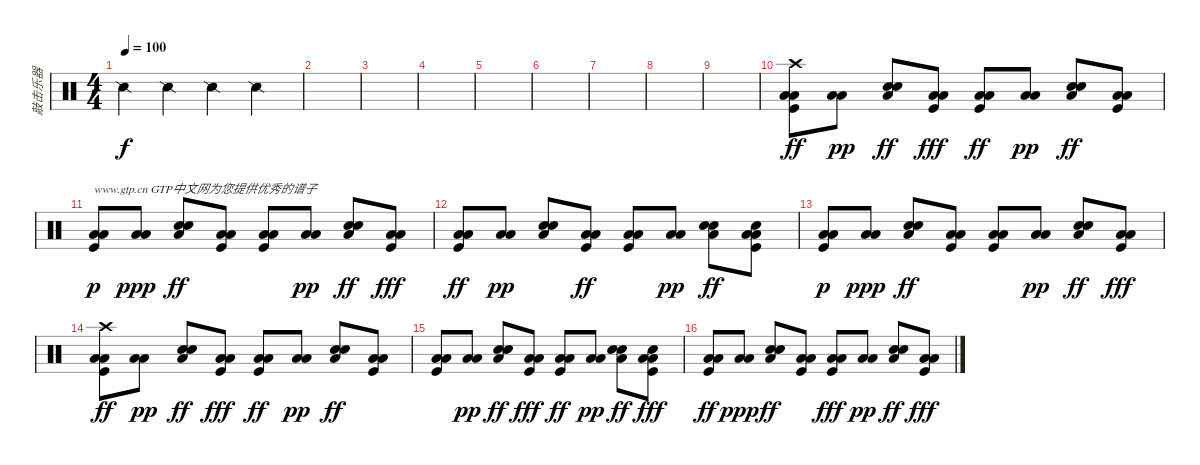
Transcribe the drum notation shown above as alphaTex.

\track ("敲击乐器" "敲击乐器") {instrument percussion}
\staff {score}
\articulation defaults
\ts (4 4)
\tempo 100
\clef neutral
\ks c "Snare (side stick) 2".4{dy f} "Snare (side stick) 2".4 "Snare (side stick) 2".4 "Snare (side stick) 2".4
|
|
|
|
|
|
|
|
|
("Crash high (hit)" "Low Tom (hit)" "Low Floor Tom (hit)" "Kick (hit)").8{dy ff} ("Low Tom (hit)" "Low Floor Tom (hit)").8{dy pp} ("Snare (hit) 2" "Low Floor Tom (hit)" "Hand Clap (hit)").8{dy ff} ("Low Tom (hit)" "Low Floor Tom (hit)" "Kick (hit)").8{dy fff} ("Low Tom (hit)" "Low Floor Tom (hit)" "Kick (hit)").8{dy ff} ("Low Tom (hit)" "Low Floor Tom (hit)").8{dy pp} ("Low Floor Tom (hit)" "Hand Clap (hit)" "Snare (hit) 2").8{dy ff} ("Low Tom (hit)" "Low Floor Tom (hit)" "Kick (hit)").8 |
("Low Tom (hit)" "Low Floor Tom (hit)" "Kick (hit)").8{txt "www.gtp.cn GTP中文网为您提供优秀的谱子" dy p} ("Low Floor Tom (hit)" "Low Tom (hit)").8{dy ppp} ("Hand Clap (hit)" "Low Floor Tom (hit)" "Snare (hit) 2").8{dy ff} ("Low Tom (hit)" "Low Floor Tom (hit)" "Kick (hit)").8 ("Low Tom (hit)" "Low Floor Tom (hit)" "Kick (hit)").8 ("Low Tom (hit)" "Low Floor Tom (hit)").8{dy pp} ("Snare (hit) 2" "Low Floor Tom (hit)" "Hand Clap (hit)").8{dy ff} ("Low Tom (hit)" "Low Floor Tom (hit)" "Kick (hit)").8{dy fff} |
("Low Tom (hit)" "Low Floor Tom (hit)" "Kick (hit)").8{dy ff} ("Low Tom (hit)" "Low Floor Tom (hit)").8{dy pp} ("Hand Clap (hit)" "Snare (hit) 2" "Low Floor Tom (hit)").8 ("Low Tom (hit)" "Low Floor Tom (hit)" "Kick (hit)").8{dy ff} ("Low Tom (hit)" "Low Floor Tom (hit)" "Kick (hit)").8 ("Low Floor Tom (hit)" "Low Tom (hit)").8{dy pp} ("Snare (hit) 2" "Low Floor Tom (hit)" "Hand Clap (hit)").8{dy ff} ("Snare (hit) 2" "Low Tom (hit)" "Low Floor Tom (hit)" "Kick (hit)").8 |
("Low Tom (hit)" "Low Floor Tom (hit)" "Kick (hit)").8{dy p} ("Low Floor Tom (hit)" "Low Tom (hit)").8{dy ppp} ("Hand Clap (hit)" "Low Floor Tom (hit)" "Snare (hit) 2").8{dy ff} ("Low Tom (hit)" "Low Floor Tom (hit)" "Kick (hit)").8 ("Low Tom (hit)" "Low Floor Tom (hit)" "Kick (hit)").8 ("Low Tom (hit)" "Low Floor Tom (hit)").8{dy pp} ("Snare (hit) 2" "Low Floor Tom (hit)" "Hand Clap (hit)").8{dy ff} ("Low Tom (hit)" "Low Floor Tom (hit)" "Kick (hit)").8{dy fff} |
("Crash high (hit)" "Low Tom (hit)" "Low Floor Tom (hit)" "Kick (hit)").8{dy ff} ("Low Tom (hit)" "Low Floor Tom (hit)").8{dy pp} ("Snare (hit) 2" "Low Floor Tom (hit)" "Hand Clap (hit)").8{dy ff} ("Low Tom (hit)" "Low Floor Tom (hit)" "Kick (hit)").8{dy fff} ("Low Tom (hit)" "Low Floor Tom (hit)" "Kick (hit)").8{dy ff} ("Low Tom (hit)" "Low Floor Tom (hit)").8{dy pp} ("Low Floor Tom (hit)" "Hand Clap (hit)" "Snare (hit) 2").8{dy ff} ("Low Tom (hit)" "Low Floor Tom (hit)" "Kick (hit)").8 |
("Low Tom (hit)" "Low Floor Tom (hit)" "Kick (hit)").8 ("Low Tom (hit)" "Low Floor Tom (hit)").8{dy pp} ("Snare (hit) 2" "Low Floor Tom (hit)" "Hand Clap (hit)").8{dy ff} ("Low Tom (hit)" "Low Floor Tom (hit)" "Kick (hit)").8{dy fff} ("Low Tom (hit)" "Low Floor Tom (hit)" "Kick (hit)").8{dy ff} ("Low Floor Tom (hit)" "Low Tom (hit)").8{dy pp} ("Snare (hit) 2" "Low Floor Tom (hit)" "Hand Clap (hit)").8{dy ff} ("Snare (hit) 2" "Low Tom (hit)" "Low Floor Tom (hit)" "Kick (hit)").8{dy fff} |
("Low Tom (hit)" "Low Floor Tom (hit)" "Kick (hit)").8{dy ff} ("Low Floor Tom (hit)" "Low Tom (hit)").8{dy ppp} ("Low Floor Tom (hit)" "Hand Clap (hit)" "Snare (hit) 2").8{dy ff} ("Low Tom (hit)" "Low Floor Tom (hit)" "Kick (hit)").8 ("Low Tom (hit)" "Low Floor Tom (hit)" "Kick (hit)").8{dy fff} ("Low Tom (hit)" "Low Floor Tom (hit)").8{dy pp} ("Snare (hit) 2" "Low Floor Tom (hit)" "Hand Clap (hit)").8{dy ff} ("Low Tom (hit)" "Low Floor Tom (hit)" "Kick (hit)").8{dy fff}
